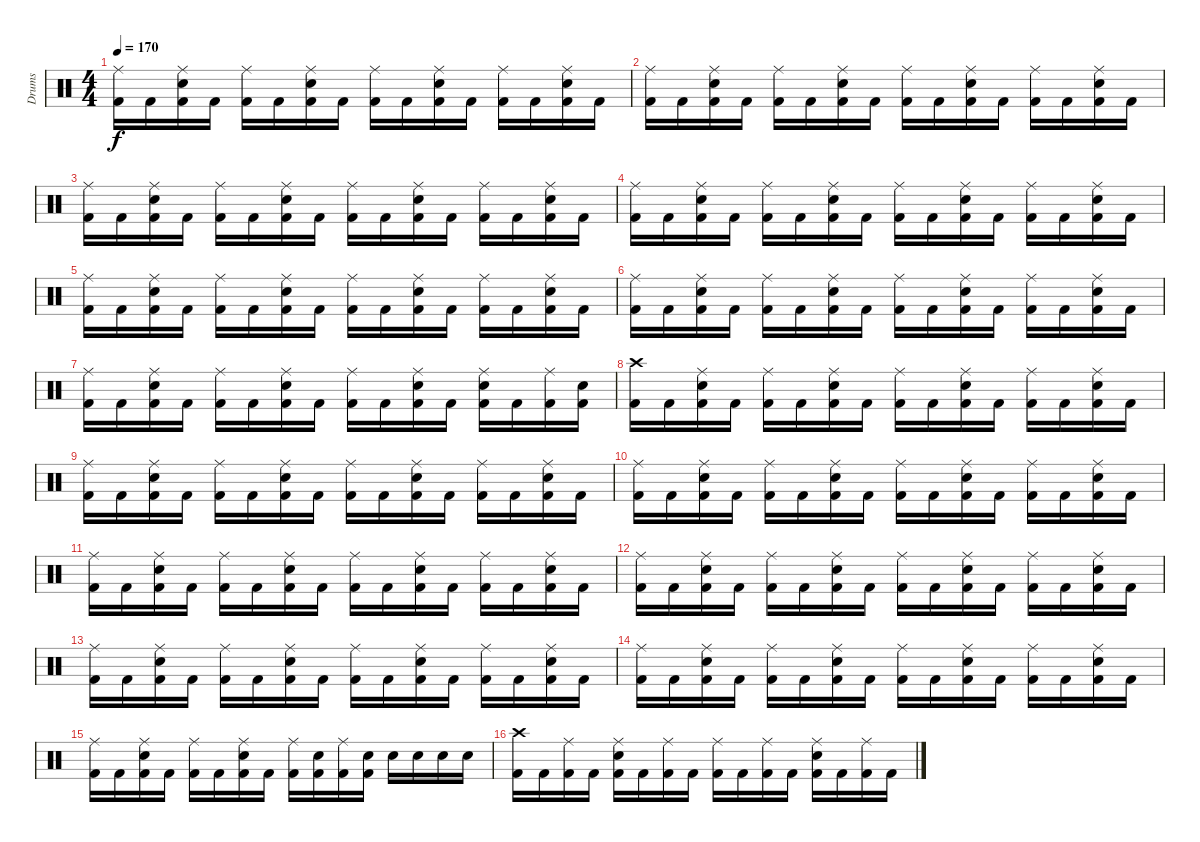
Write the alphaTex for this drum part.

\track ("Drums" "Drums") {instrument percussion}
\staff {score}
\articulation defaults
\ts (4 4)
\tempo 170
\clef neutral
\ks c
("Ride (middle)" "Kick (hit) 2").16{dy f} "Kick (hit) 2".16 ("Ride (middle)" "Electric Snare (hit)" "Kick (hit) 2").16 "Kick (hit) 2".16 ("Ride (middle)" "Kick (hit) 2").16 "Kick (hit) 2".16 ("Ride (middle)" "Electric Snare (hit)" "Kick (hit) 2").16 "Kick (hit) 2".16 ("Ride (middle)" "Kick (hit) 2").16 "Kick (hit) 2".16 ("Ride (middle)" "Electric Snare (hit)" "Kick (hit) 2").16 "Kick (hit) 2".16 ("Ride (middle)" "Kick (hit) 2").16 "Kick (hit) 2".16 ("Ride (middle)" "Electric Snare (hit)" "Kick (hit) 2").16 "Kick (hit) 2".16 |
("Ride (middle)" "Kick (hit) 2").16 "Kick (hit) 2".16 ("Ride (middle)" "Electric Snare (hit)" "Kick (hit) 2").16 "Kick (hit) 2".16 ("Ride (middle)" "Kick (hit) 2").16 "Kick (hit) 2".16 ("Ride (middle)" "Electric Snare (hit)" "Kick (hit) 2").16 "Kick (hit) 2".16 ("Ride (middle)" "Kick (hit) 2").16 "Kick (hit) 2".16 ("Ride (middle)" "Electric Snare (hit)" "Kick (hit) 2").16 "Kick (hit) 2".16 ("Ride (middle)" "Kick (hit) 2").16 "Kick (hit) 2".16 ("Ride (middle)" "Electric Snare (hit)" "Kick (hit) 2").16 "Kick (hit) 2".16 |
("Ride (middle)" "Kick (hit) 2").16 "Kick (hit) 2".16 ("Ride (middle)" "Electric Snare (hit)" "Kick (hit) 2").16 "Kick (hit) 2".16 ("Ride (middle)" "Kick (hit) 2").16 "Kick (hit) 2".16 ("Ride (middle)" "Electric Snare (hit)" "Kick (hit) 2").16 "Kick (hit) 2".16 ("Ride (middle)" "Kick (hit) 2").16 "Kick (hit) 2".16 ("Ride (middle)" "Electric Snare (hit)" "Kick (hit) 2").16 "Kick (hit) 2".16 ("Ride (middle)" "Kick (hit) 2").16 "Kick (hit) 2".16 ("Ride (middle)" "Electric Snare (hit)" "Kick (hit) 2").16 "Kick (hit) 2".16 |
("Ride (middle)" "Kick (hit) 2").16 "Kick (hit) 2".16 ("Ride (middle)" "Electric Snare (hit)" "Kick (hit) 2").16 "Kick (hit) 2".16 ("Ride (middle)" "Kick (hit) 2").16 "Kick (hit) 2".16 ("Ride (middle)" "Electric Snare (hit)" "Kick (hit) 2").16 "Kick (hit) 2".16 ("Ride (middle)" "Kick (hit) 2").16 "Kick (hit) 2".16 ("Ride (middle)" "Electric Snare (hit)" "Kick (hit) 2").16 "Kick (hit) 2".16 ("Ride (middle)" "Kick (hit) 2").16 "Kick (hit) 2".16 ("Ride (middle)" "Electric Snare (hit)" "Kick (hit) 2").16 "Kick (hit) 2".16 |
("Ride (middle)" "Kick (hit) 2").16 "Kick (hit) 2".16 ("Ride (middle)" "Electric Snare (hit)" "Kick (hit) 2").16 "Kick (hit) 2".16 ("Ride (middle)" "Kick (hit) 2").16 "Kick (hit) 2".16 ("Ride (middle)" "Electric Snare (hit)" "Kick (hit) 2").16 "Kick (hit) 2".16 ("Ride (middle)" "Kick (hit) 2").16 "Kick (hit) 2".16 ("Ride (middle)" "Electric Snare (hit)" "Kick (hit) 2").16 "Kick (hit) 2".16 ("Ride (middle)" "Kick (hit) 2").16 "Kick (hit) 2".16 ("Ride (middle)" "Electric Snare (hit)" "Kick (hit) 2").16 "Kick (hit) 2".16 |
("Ride (middle)" "Kick (hit) 2").16 "Kick (hit) 2".16 ("Ride (middle)" "Electric Snare (hit)" "Kick (hit) 2").16 "Kick (hit) 2".16 ("Ride (middle)" "Kick (hit) 2").16 "Kick (hit) 2".16 ("Ride (middle)" "Electric Snare (hit)" "Kick (hit) 2").16 "Kick (hit) 2".16 ("Ride (middle)" "Kick (hit) 2").16 "Kick (hit) 2".16 ("Ride (middle)" "Electric Snare (hit)" "Kick (hit) 2").16 "Kick (hit) 2".16 ("Ride (middle)" "Kick (hit) 2").16 "Kick (hit) 2".16 ("Ride (middle)" "Electric Snare (hit)" "Kick (hit) 2").16 "Kick (hit) 2".16 |
("Ride (middle)" "Kick (hit) 2").16 "Kick (hit) 2".16 ("Ride (middle)" "Electric Snare (hit)" "Kick (hit) 2").16 "Kick (hit) 2".16 ("Ride (middle)" "Kick (hit) 2").16 "Kick (hit) 2".16 ("Ride (middle)" "Electric Snare (hit)" "Kick (hit) 2").16 "Kick (hit) 2".16 ("Ride (middle)" "Kick (hit) 2").16 "Kick (hit) 2".16 ("Ride (middle)" "Electric Snare (hit)" "Kick (hit) 2").16 "Kick (hit) 2".16 ("Ride (middle)" "Electric Snare (hit)" "Kick (hit) 2").16 "Kick (hit) 2".16 ("Ride (middle)" "Kick (hit) 2").16 ("Electric Snare (hit)" "Kick (hit) 2").16 |
("Crash high (hit)" "Kick (hit) 2").16 "Kick (hit) 2".16 ("Ride (middle)" "Electric Snare (hit)" "Kick (hit) 2").16 "Kick (hit) 2".16 ("Ride (middle)" "Kick (hit) 2").16 "Kick (hit) 2".16 ("Ride (middle)" "Electric Snare (hit)" "Kick (hit) 2").16 "Kick (hit) 2".16 ("Ride (middle)" "Kick (hit) 2").16 "Kick (hit) 2".16 ("Ride (middle)" "Electric Snare (hit)" "Kick (hit) 2").16 "Kick (hit) 2".16 ("Ride (middle)" "Kick (hit) 2").16 "Kick (hit) 2".16 ("Ride (middle)" "Electric Snare (hit)" "Kick (hit) 2").16 "Kick (hit) 2".16 |
("Ride (middle)" "Kick (hit) 2").16 "Kick (hit) 2".16 ("Ride (middle)" "Electric Snare (hit)" "Kick (hit) 2").16 "Kick (hit) 2".16 ("Ride (middle)" "Kick (hit) 2").16 "Kick (hit) 2".16 ("Ride (middle)" "Electric Snare (hit)" "Kick (hit) 2").16 "Kick (hit) 2".16 ("Ride (middle)" "Kick (hit) 2").16 "Kick (hit) 2".16 ("Ride (middle)" "Electric Snare (hit)" "Kick (hit) 2").16 "Kick (hit) 2".16 ("Ride (middle)" "Kick (hit) 2").16 "Kick (hit) 2".16 ("Ride (middle)" "Electric Snare (hit)" "Kick (hit) 2").16 "Kick (hit) 2".16 |
("Ride (middle)" "Kick (hit) 2").16 "Kick (hit) 2".16 ("Ride (middle)" "Electric Snare (hit)" "Kick (hit) 2").16 "Kick (hit) 2".16 ("Ride (middle)" "Kick (hit) 2").16 "Kick (hit) 2".16 ("Ride (middle)" "Electric Snare (hit)" "Kick (hit) 2").16 "Kick (hit) 2".16 ("Ride (middle)" "Kick (hit) 2").16 "Kick (hit) 2".16 ("Ride (middle)" "Electric Snare (hit)" "Kick (hit) 2").16 "Kick (hit) 2".16 ("Ride (middle)" "Kick (hit) 2").16 "Kick (hit) 2".16 ("Ride (middle)" "Electric Snare (hit)" "Kick (hit) 2").16 "Kick (hit) 2".16 |
("Ride (middle)" "Kick (hit) 2").16 "Kick (hit) 2".16 ("Ride (middle)" "Electric Snare (hit)" "Kick (hit) 2").16 "Kick (hit) 2".16 ("Ride (middle)" "Kick (hit) 2").16 "Kick (hit) 2".16 ("Ride (middle)" "Electric Snare (hit)" "Kick (hit) 2").16 "Kick (hit) 2".16 ("Ride (middle)" "Kick (hit) 2").16 "Kick (hit) 2".16 ("Ride (middle)" "Electric Snare (hit)" "Kick (hit) 2").16 "Kick (hit) 2".16 ("Ride (middle)" "Kick (hit) 2").16 "Kick (hit) 2".16 ("Ride (middle)" "Electric Snare (hit)" "Kick (hit) 2").16 "Kick (hit) 2".16 |
("Ride (middle)" "Kick (hit) 2").16 "Kick (hit) 2".16 ("Ride (middle)" "Electric Snare (hit)" "Kick (hit) 2").16 "Kick (hit) 2".16 ("Ride (middle)" "Kick (hit) 2").16 "Kick (hit) 2".16 ("Ride (middle)" "Electric Snare (hit)" "Kick (hit) 2").16 "Kick (hit) 2".16 ("Ride (middle)" "Kick (hit) 2").16 "Kick (hit) 2".16 ("Ride (middle)" "Electric Snare (hit)" "Kick (hit) 2").16 "Kick (hit) 2".16 ("Ride (middle)" "Kick (hit) 2").16 "Kick (hit) 2".16 ("Ride (middle)" "Electric Snare (hit)" "Kick (hit) 2").16 "Kick (hit) 2".16 |
("Ride (middle)" "Kick (hit) 2").16 "Kick (hit) 2".16 ("Ride (middle)" "Electric Snare (hit)" "Kick (hit) 2").16 "Kick (hit) 2".16 ("Ride (middle)" "Kick (hit) 2").16 "Kick (hit) 2".16 ("Ride (middle)" "Electric Snare (hit)" "Kick (hit) 2").16 "Kick (hit) 2".16 ("Ride (middle)" "Kick (hit) 2").16 "Kick (hit) 2".16 ("Ride (middle)" "Electric Snare (hit)" "Kick (hit) 2").16 "Kick (hit) 2".16 ("Ride (middle)" "Kick (hit) 2").16 "Kick (hit) 2".16 ("Ride (middle)" "Electric Snare (hit)" "Kick (hit) 2").16 "Kick (hit) 2".16 |
("Ride (middle)" "Kick (hit) 2").16 "Kick (hit) 2".16 ("Ride (middle)" "Electric Snare (hit)" "Kick (hit) 2").16 "Kick (hit) 2".16 ("Ride (middle)" "Kick (hit) 2").16 "Kick (hit) 2".16 ("Ride (middle)" "Electric Snare (hit)" "Kick (hit) 2").16 "Kick (hit) 2".16 ("Ride (middle)" "Kick (hit) 2").16 "Kick (hit) 2".16 ("Ride (middle)" "Electric Snare (hit)" "Kick (hit) 2").16 "Kick (hit) 2".16 ("Ride (middle)" "Kick (hit) 2").16 "Kick (hit) 2".16 ("Ride (middle)" "Electric Snare (hit)" "Kick (hit) 2").16 "Kick (hit) 2".16 |
("Ride (middle)" "Kick (hit) 2").16 "Kick (hit) 2".16 ("Ride (middle)" "Electric Snare (hit)" "Kick (hit) 2").16 "Kick (hit) 2".16 ("Ride (middle)" "Kick (hit) 2").16 "Kick (hit) 2".16 ("Ride (middle)" "Electric Snare (hit)" "Kick (hit) 2").16 "Kick (hit) 2".16 ("Ride (middle)" "Kick (hit) 2").16 ("Electric Snare (hit)" "Kick (hit) 2").16 ("Ride (middle)" "Kick (hit) 2").16 ("Electric Snare (hit)" "Kick (hit) 2").16 "Electric Snare (hit)".16 "Electric Snare (hit)".16 "Electric Snare (hit)".16 "Electric Snare (hit)".16 |
("Crash high (hit)" "Kick (hit) 2").16 "Kick (hit) 2".16 ("Ride (middle)" "Kick (hit) 2").16 "Kick (hit) 2".16 ("Ride (middle)" "Electric Snare (hit)" "Kick (hit) 2").16 "Kick (hit) 2".16 ("Ride (middle)" "Kick (hit) 2").16 "Kick (hit) 2".16 ("Ride (middle)" "Kick (hit) 2").16 "Kick (hit) 2".16 ("Ride (middle)" "Kick (hit) 2").16 "Kick (hit) 2".16 ("Ride (middle)" "Electric Snare (hit)" "Kick (hit) 2").16 "Kick (hit) 2".16 ("Ride (middle)" "Kick (hit) 2").16 "Kick (hit) 2".16
